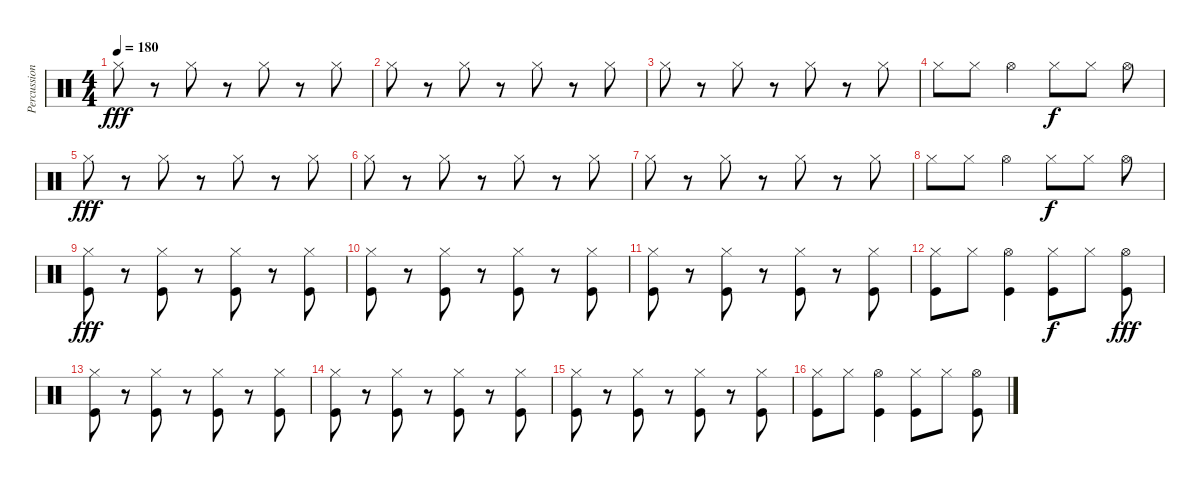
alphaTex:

\track ("Percussion" "Percussion") {instrument percussion}
\staff {score}
\articulation defaults
\ts (4 4)
\tempo 180
\clef neutral
\ks c "Hi-Hat (closed)".8{dy fff}
r.8 "Hi-Hat (closed)".8 r.8 "Hi-Hat (closed)".8 r.8 "Hi-Hat (closed)".8 |
"Hi-Hat (closed)".8 r.8 "Hi-Hat (closed)".8 r.8 "Hi-Hat (closed)".8 r.8 "Hi-Hat (closed)".8 |
"Hi-Hat (closed)".8 r.8 "Hi-Hat (closed)".8 r.8 "Hi-Hat (closed)".8 r.8 "Hi-Hat (closed)".8 |
"Hi-Hat (closed)".8 "Hi-Hat (closed)".8 "Hi-Hat (open)".4 "Hi-Hat (closed)".8{dy f} "Hi-Hat (closed)".8 "Hi-Hat (open)".8 |
"Hi-Hat (closed)".8{dy fff} r.8 "Hi-Hat (closed)".8 r.8 "Hi-Hat (closed)".8 r.8 "Hi-Hat (closed)".8 |
"Hi-Hat (closed)".8 r.8 "Hi-Hat (closed)".8 r.8 "Hi-Hat (closed)".8 r.8 "Hi-Hat (closed)".8 |
"Hi-Hat (closed)".8 r.8 "Hi-Hat (closed)".8 r.8 "Hi-Hat (closed)".8 r.8 "Hi-Hat (closed)".8 |
"Hi-Hat (closed)".8 "Hi-Hat (closed)".8 "Hi-Hat (open)".4 "Hi-Hat (closed)".8{dy f} "Hi-Hat (closed)".8 "Hi-Hat (open)".8 |
("Hi-Hat (closed)" "Kick (hit)").8{dy fff} r.8 ("Hi-Hat (closed)" "Kick (hit)").8 r.8 ("Hi-Hat (closed)" "Kick (hit)").8 r.8 ("Hi-Hat (closed)" "Kick (hit)").8 |
("Hi-Hat (closed)" "Kick (hit)").8 r.8 ("Hi-Hat (closed)" "Kick (hit)").8 r.8 ("Hi-Hat (closed)" "Kick (hit)").8 r.8 ("Hi-Hat (closed)" "Kick (hit)").8 |
("Hi-Hat (closed)" "Kick (hit)").8 r.8 ("Hi-Hat (closed)" "Kick (hit)").8 r.8 ("Hi-Hat (closed)" "Kick (hit)").8 r.8 ("Hi-Hat (closed)" "Kick (hit)").8 |
("Hi-Hat (closed)" "Kick (hit)").8 "Hi-Hat (closed)".8 ("Hi-Hat (open)" "Kick (hit)").4 ("Hi-Hat (closed)" "Kick (hit)").8{dy f} "Hi-Hat (closed)".8 ("Hi-Hat (open)" "Kick (hit)").8{dy fff} |
("Hi-Hat (closed)" "Kick (hit)").8 r.8 ("Hi-Hat (closed)" "Kick (hit)").8 r.8 ("Hi-Hat (closed)" "Kick (hit)").8 r.8 ("Hi-Hat (closed)" "Kick (hit)").8 |
("Hi-Hat (closed)" "Kick (hit)").8 r.8 ("Hi-Hat (closed)" "Kick (hit)").8 r.8 ("Hi-Hat (closed)" "Kick (hit)").8 r.8 ("Hi-Hat (closed)" "Kick (hit)").8 |
("Hi-Hat (closed)" "Kick (hit)").8 r.8 ("Hi-Hat (closed)" "Kick (hit)").8 r.8 ("Hi-Hat (closed)" "Kick (hit)").8 r.8 ("Hi-Hat (closed)" "Kick (hit)").8 |
("Hi-Hat (closed)" "Kick (hit)").8 "Hi-Hat (closed)".8 ("Hi-Hat (open)" "Kick (hit)").4 ("Hi-Hat (closed)" "Kick (hit)").8 "Hi-Hat (closed)".8 ("Hi-Hat (open)" "Kick (hit)").8
